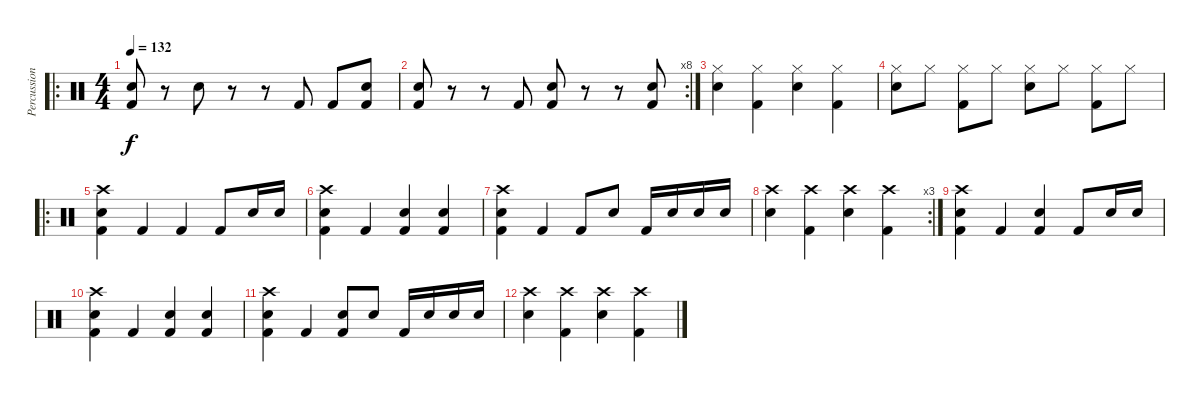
\track ("Percussion" "Percussion") {instrument percussion}
\staff {score}
\articulation defaults
\ro
\ts (4 4)
\tempo 132
\clef neutral
\ks c
("Electric Snare (hit)" "Kick (hit) 2").8{dy f} r.8 "Electric Snare (hit)".8 r.8 r.8 "Kick (hit) 2".8 "Kick (hit) 2".8 ("Electric Snare (hit)" "Kick (hit) 2").8 |
\rc 8
("Electric Snare (hit)" "Kick (hit) 2").8 r.8 r.8 "Kick (hit) 2".8 ("Electric Snare (hit)" "Kick (hit) 2").8 r.8 r.8 ("Electric Snare (hit)" "Kick (hit) 2").8 |
("Hi-Hat (closed)" "Electric Snare (hit)").4 ("Hi-Hat (closed)" "Kick (hit) 2").4 ("Hi-Hat (closed)" "Electric Snare (hit)").4 ("Hi-Hat (closed)" "Kick (hit) 2").4 |
("Hi-Hat (closed)" "Electric Snare (hit)").8 "Hi-Hat (closed)".8 ("Hi-Hat (closed)" "Kick (hit) 2").8 "Hi-Hat (closed)".8 ("Hi-Hat (closed)" "Electric Snare (hit)").8 "Hi-Hat (closed)".8 ("Hi-Hat (closed)" "Kick (hit) 2").8 "Hi-Hat (closed)".8 |
\ro
("Crash high (hit)" "Electric Snare (hit)" "Kick (hit) 2").4 "Kick (hit) 2".4 "Kick (hit) 2".4 "Kick (hit) 2".8 "Electric Snare (hit)".16 "Electric Snare (hit)".16 |
("Crash high (hit)" "Electric Snare (hit)" "Kick (hit) 2").4 "Kick (hit) 2".4 ("Electric Snare (hit)" "Kick (hit) 2").4 ("Electric Snare (hit)" "Kick (hit) 2").4 |
("Crash high (hit)" "Electric Snare (hit)" "Kick (hit) 2").4 "Kick (hit) 2".4 "Kick (hit) 2".8 "Electric Snare (hit)".8 "Kick (hit) 2".16 "Electric Snare (hit)".16 "Electric Snare (hit)".16 "Electric Snare (hit)".16 |
\rc 3
("Crash high (hit)" "Electric Snare (hit)").4 ("Crash high (hit)" "Kick (hit) 2").4 ("Crash high (hit)" "Electric Snare (hit)").4 ("Crash high (hit)" "Kick (hit) 2").4 |
("Crash high (hit)" "Electric Snare (hit)" "Kick (hit) 2").4 "Kick (hit) 2".4 ("Electric Snare (hit)" "Kick (hit) 2").4 "Kick (hit) 2".8 "Electric Snare (hit)".16 "Electric Snare (hit)".16 |
("Crash high (hit)" "Electric Snare (hit)" "Kick (hit) 2").4 "Kick (hit) 2".4 ("Electric Snare (hit)" "Kick (hit) 2").4 ("Electric Snare (hit)" "Kick (hit) 2").4 |
("Crash high (hit)" "Electric Snare (hit)" "Kick (hit) 2").4 "Kick (hit) 2".4 ("Electric Snare (hit)" "Kick (hit) 2").8 "Electric Snare (hit)".8 "Kick (hit) 2".16 "Electric Snare (hit)".16 "Electric Snare (hit)".16 "Electric Snare (hit)".16 |
("Crash high (hit)" "Electric Snare (hit)").4 ("Crash high (hit)" "Kick (hit) 2").4 ("Crash high (hit)" "Electric Snare (hit)").4 ("Crash high (hit)" "Kick (hit) 2").4
